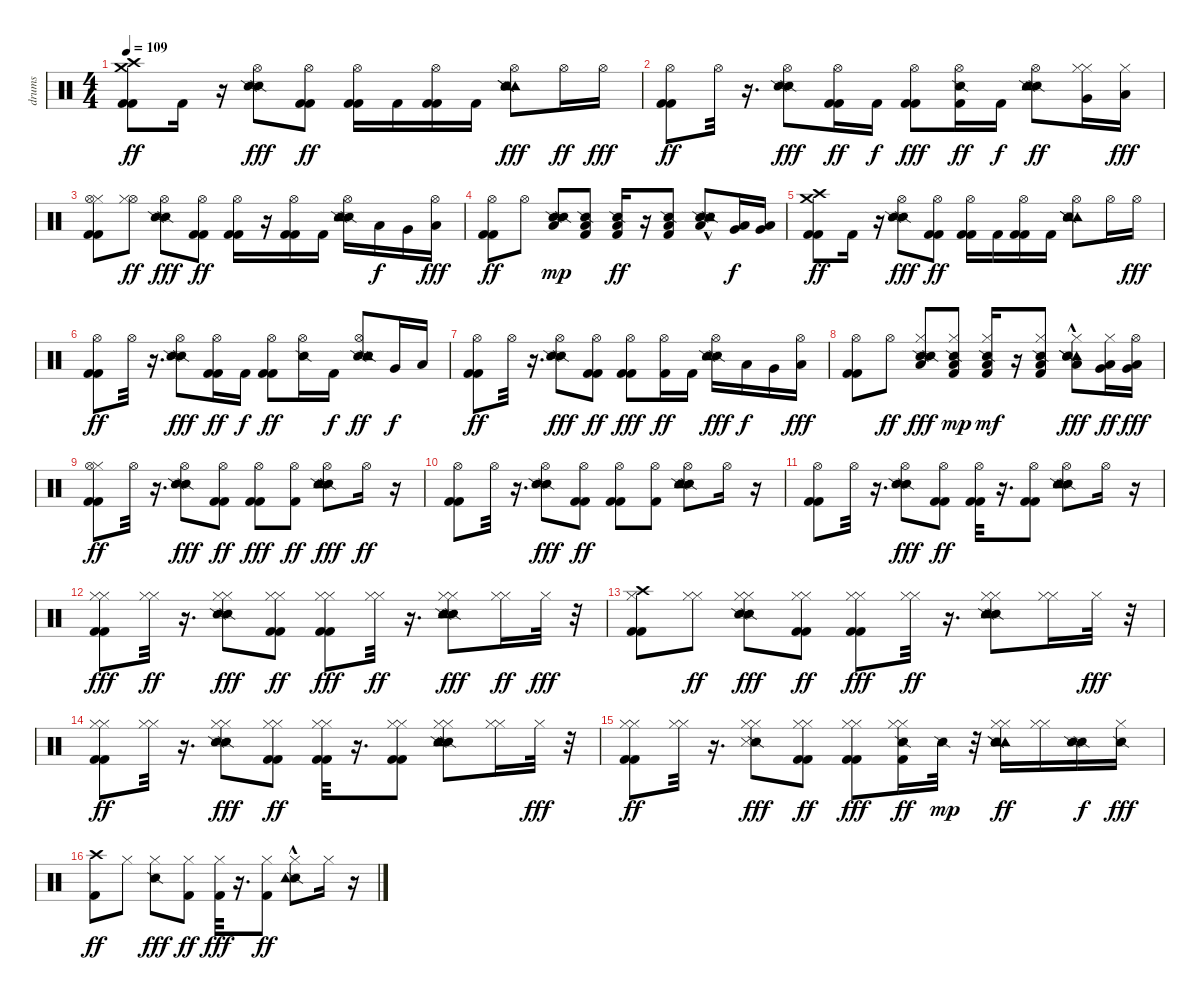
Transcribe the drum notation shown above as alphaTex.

\track ("drums" "drums") {instrument percussion}
\staff {score}
\articulation defaults
\ts (4 4)
\tempo 109
\clef neutral
\ks c
("Crash medium (hit)" "Kick (hit) 2" "Crash high (hit)" "Kick (hit) 2").8{dy ff} "Kick (hit) 2".16 r.16 ("Snare (side stick) 2" "Snare (side stick) 2" "Hi-Hat (open)").8{dy fff} ("Hi-Hat (open)" "Kick (hit) 2" "Kick (hit) 2").8{dy ff} ("Hi-Hat (open)" "Kick (hit) 2" "Kick (hit) 2").16 "Kick (hit) 2".16 ("Kick (hit) 2" "Kick (hit) 2" "Hi-Hat (open)").16 "Kick (hit) 2".16 ("Tambourine (hit)" "Tambourine (hit)" "Snare (side stick) 2" "Snare (side stick) 2" "Hi-Hat (open)").8{dy fff} "Hi-Hat (open)".16{dy ff} "Hi-Hat (open)".16{dy fff} |
("Kick (hit) 2" "Hi-Hat (open)" "Kick (hit) 2").8{dy ff} "Hi-Hat (open)".32 r.16{d} ("Hi-Hat (open)" "Snare (side stick) 2" "Snare (side stick) 2").8{dy fff} ("Hi-Hat (open)" "Kick (hit) 2" "Kick (hit) 2").16{dy ff} "Kick (hit) 2".16{dy f} ("Kick (hit) 2" "Kick (hit) 2" "Hi-Hat (open)").8{dy fff} ("Snare (side stick) 2" "Hi-Hat (open)" "Kick (hit) 2").16{dy ff} "Kick (hit) 2".16{dy f} ("Snare (side stick) 2" "Hi-Hat (open)" "Tambourine (hit)" "Tambourine (hit)" "Snare (side stick) 2").8{dy ff} ("Hi-Hat (closed)" "Very Low Tom (hit)" "Hi-Hat (closed)").16 ("Low Floor Tom (hit)" "Hi-Hat (closed)").16{dy fff} |
("Kick (hit) 2" "Kick (hit) 2" "Hi-Hat (closed)" "Hi-Hat (open)").8 ("Hi-Hat (open)" "Hi-Hat (closed)").8{dy ff} ("Snare (side stick) 2" "Hi-Hat (open)" "Snare (side stick) 2").8{dy fff} ("Kick (hit) 2" "Kick (hit) 2" "Hi-Hat (open)").8{dy ff} ("Kick (hit) 2" "Hi-Hat (open)" "Kick (hit) 2").16 r.16 ("Kick (hit) 2" "Kick (hit) 2" "Hi-Hat (open)").16 "Kick (hit) 2".16 ("Hi-Hat (open)" "Snare (side stick) 2" "Tambourine (hit)" "Snare (side stick) 2").16 "Low Tom (hit)".16{dy f} "Very Low Tom (hit)".16 ("Hi-Hat (open)" "Low Floor Tom (hit)").16{dy fff} |
("Hi-Hat (open)" "Kick (hit) 2" "Kick (hit) 2").8{dy ff} "Hi-Hat (open)".8 ("Low Floor Tom (hit)" "Snare (side stick) 2" "Snare (side stick) 2").8{dy mp} ("Low Floor Tom (hit)" "Kick (hit) 2" "Snare (side stick) 2").8 ("Low Floor Tom (hit)" "Snare (side stick) 2" "Kick (hit) 2").16{dy ff} r.16 ("Snare (side stick) 2" "Kick (hit) 2" "Low Floor Tom (hit)").8 ("Snare (side stick) 2" "Low Floor Tom (hit)" "Snare (side stick) 2" "Tambourine (hit)"{hac}).8 ("Low Tom (hit)" "Very Low Tom (hit)").16{dy f} ("Low Floor Tom (hit)" "Very Low Tom (hit)").16 |
("Crash high (hit)" "Crash medium (hit)" "Kick (hit) 2" "Kick (hit) 2").8{dy ff} "Kick (hit) 2".16 r.16 ("Snare (side stick) 2" "Hi-Hat (open)" "Snare (side stick) 2").8{dy fff} ("Kick (hit) 2" "Hi-Hat (open)" "Kick (hit) 2").8{dy ff} ("Hi-Hat (open)" "Kick (hit) 2" "Kick (hit) 2").16 "Kick (hit) 2".16 ("Kick (hit) 2" "Kick (hit) 2" "Hi-Hat (open)").16 "Kick (hit) 2".16 ("Hi-Hat (open)" "Tambourine (hit)" "Snare (side stick) 2" "Tambourine (hit)" "Snare (side stick) 2").8 "Hi-Hat (open)".16 "Hi-Hat (open)".16{dy fff} |
("Kick (hit) 2" "Hi-Hat (open)" "Kick (hit) 2").8{dy ff} "Hi-Hat (open)".32 r.16{d} ("Snare (side stick) 2" "Hi-Hat (open)" "Snare (side stick) 2").8{dy fff} ("Kick (hit) 2" "Hi-Hat (open)" "Kick (hit) 2").16{dy ff} "Kick (hit) 2".16{dy f} ("Kick (hit) 2" "Hi-Hat (open)" "Kick (hit) 2").8{dy ff} ("Hi-Hat (open)" "Snare (side stick) 2").16 "Kick (hit) 2".16{dy f} ("Snare (side stick) 2" "Hi-Hat (open)" "Snare (side stick) 2" "Tambourine (hit)" "Tambourine (hit)").8{dy ff} "Very Low Tom (hit)".16{dy f} "Low Floor Tom (hit)".16 |
("Kick (hit) 2" "Hi-Hat (open)" "Kick (hit) 2").8{dy ff} "Hi-Hat (open)".32 r.16{d} ("Snare (side stick) 2" "Snare (side stick) 2" "Hi-Hat (open)").8{dy fff} ("Kick (hit) 2" "Hi-Hat (open)" "Kick (hit) 2").8{dy ff} ("Kick (hit) 2" "Kick (hit) 2" "Hi-Hat (open)").8{dy fff} ("Hi-Hat (open)" "Kick (hit) 2").16{dy ff} "Kick (hit) 2".16 ("Snare (side stick) 2" "Tambourine (hit)" "Hi-Hat (open)" "Snare (side stick) 2").16{dy fff} "Low Tom (hit)".16{dy f} "Very Low Tom (hit)".16 ("Hi-Hat (open)" "Low Floor Tom (hit)").16{dy fff} |
("Kick (hit) 2" "Kick (hit) 2" "Hi-Hat (open)").8 "Hi-Hat (open)".8{dy ff} ("Snare (side stick) 2" "Snare (side stick) 2" "Low Floor Tom (hit)" "Hi-Hat (closed)").8{dy fff} ("Kick (hit) 2" "Hi-Hat (closed)" "Snare (side stick) 2" "Low Floor Tom (hit)").8{dy mp} ("Low Floor Tom (hit)" "Hi-Hat (closed)" "Kick (hit) 2" "Snare (side stick) 2").16{dy mf} r.16 ("Hi-Hat (closed)" "Kick (hit) 2" "Low Floor Tom (hit)" "Snare (side stick) 2").8 ("Tambourine (hit)"{hac} "Snare (side stick) 2" "Low Floor Tom (hit)" "Snare (side stick) 2" "Hi-Hat (closed)").8{dy fff} ("Hi-Hat (closed)" "Very Low Tom (hit)" "Low Tom (hit)").16{dy ff} ("Low Floor Tom (hit)" "Very Low Tom (hit)" "Hi-Hat (open)").16{dy fff} |
("Hi-Hat (closed)" "Kick (hit) 2" "Hi-Hat (open)" "Kick (hit) 2").8{dy ff} "Hi-Hat (open)".32 r.16{d} ("Snare (side stick) 2" "Snare (side stick) 2" "Hi-Hat (open)").8{dy fff} ("Hi-Hat (open)" "Kick (hit) 2" "Kick (hit) 2").8{dy ff} ("Kick (hit) 2" "Kick (hit) 2" "Hi-Hat (open)").8{dy fff} ("Kick (hit) 2" "Hi-Hat (open)").8{dy ff} ("Snare (side stick) 2" "Tambourine (hit)" "Tambourine (hit)" "Snare (side stick) 2" "Hi-Hat (open)").8{dy fff} "Hi-Hat (open)".16{dy ff} r.16 |
("Kick (hit) 2" "Hi-Hat (open)" "Kick (hit) 2").8 "Hi-Hat (open)".32 r.16{d} ("Snare (side stick) 2" "Hi-Hat (open)" "Snare (side stick) 2").8{dy fff} ("Kick (hit) 2" "Hi-Hat (open)" "Kick (hit) 2").8{dy ff} ("Kick (hit) 2" "Hi-Hat (open)" "Kick (hit) 2").8 ("Kick (hit) 2" "Hi-Hat (open)").8 ("Snare (side stick) 2" "Snare (side stick) 2" "Hi-Hat (open)" "Tambourine (hit)" "Tambourine (hit)").8 "Hi-Hat (open)".16 r.16 |
("Hi-Hat (open)" "Kick (hit) 2" "Kick (hit) 2").8 "Hi-Hat (open)".32 r.16{d} ("Snare (side stick) 2" "Snare (side stick) 2" "Hi-Hat (open)").8{dy fff} ("Hi-Hat (open)" "Kick (hit) 2" "Kick (hit) 2").8{dy ff} ("Kick (hit) 2" "Hi-Hat (open)" "Kick (hit) 2").32 r.16{d} ("Hi-Hat (open)" "Kick (hit) 2" "Kick (hit) 2").8 ("Hi-Hat (open)" "Snare (side stick) 2" "Tambourine (hit)" "Snare (side stick) 2" "Tambourine (hit)").8 "Hi-Hat (open)".16 r.16 |
("Kick (hit) 2" "Hi-Hat (closed)" "Kick (hit) 2" "Hi-Hat (closed)").8{dy fff} ("Hi-Hat (closed)" "Hi-Hat (closed)").32{dy ff} r.16{d} ("Snare (side stick) 2" "Hi-Hat (closed)" "Snare (side stick) 2" "Hi-Hat (closed)").8{dy fff} ("Kick (hit) 2" "Kick (hit) 2" "Hi-Hat (closed)" "Hi-Hat (closed)").8{dy ff} ("Kick (hit) 2" "Hi-Hat (closed)" "Kick (hit) 2" "Hi-Hat (closed)").8{dy fff} ("Hi-Hat (closed)" "Hi-Hat (closed)").32{dy ff} r.16{d} ("Hi-Hat (closed)" "Snare (side stick) 2" "Tambourine (hit)" "Snare (side stick) 2" "Tambourine (hit)" "Hi-Hat (closed)").8{dy fff} ("Hi-Hat (closed)" "Hi-Hat (closed)").16{dy ff} "Hi-Hat (closed)".32{dy fff} r.32 |
("Kick (hit) 2" "Crash high (hit)" "Kick (hit) 2" "Hi-Hat (closed)").8 ("Hi-Hat (closed)" "Hi-Hat (closed)").8{dy ff} ("Snare (side stick) 2" "Snare (side stick) 2" "Hi-Hat (closed)" "Hi-Hat (closed)").8{dy fff} ("Hi-Hat (closed)" "Kick (hit) 2" "Kick (hit) 2" "Hi-Hat (closed)").8{dy ff} ("Kick (hit) 2" "Hi-Hat (closed)" "Kick (hit) 2" "Hi-Hat (closed)").8{dy fff} ("Hi-Hat (closed)" "Hi-Hat (closed)").32{dy ff} r.16{d} ("Hi-Hat (closed)" "Snare (side stick) 2" "Snare (side stick) 2" "Tambourine (hit)" "Hi-Hat (closed)" "Tambourine (hit)").8 ("Hi-Hat (closed)" "Hi-Hat (closed)").16 "Hi-Hat (closed)".32{dy fff} r.32 |
("Hi-Hat (closed)" "Hi-Hat (closed)" "Kick (hit) 2" "Kick (hit) 2").8{dy ff} ("Hi-Hat (closed)" "Hi-Hat (closed)").32 r.16{d} ("Hi-Hat (closed)" "Snare (side stick) 2" "Snare (side stick) 2" "Hi-Hat (closed)").8{dy fff} ("Hi-Hat (closed)" "Kick (hit) 2" "Hi-Hat (closed)" "Kick (hit) 2").8{dy ff} ("Hi-Hat (closed)" "Hi-Hat (closed)" "Kick (hit) 2" "Kick (hit) 2").32 r.16{d} ("Hi-Hat (closed)" "Kick (hit) 2" "Hi-Hat (closed)" "Kick (hit) 2").8 ("Snare (side stick) 2" "Hi-Hat (closed)" "Tambourine (hit)" "Hi-Hat (closed)" "Snare (side stick) 2" "Tambourine (hit)").8 ("Hi-Hat (closed)" "Hi-Hat (closed)").16 "Hi-Hat (closed)".32{dy fff} r.32 |
("Hi-Hat (closed)" "Kick (hit) 2" "Hi-Hat (closed)" "Kick (hit) 2").8{dy ff} ("Hi-Hat (closed)" "Hi-Hat (closed)").32 r.16{d} ("Snare (side stick) 2" "Hi-Hat (closed)" "Hi-Hat (closed)" "Snare (side stick) 3").8{dy fff} ("Kick (hit) 2" "Hi-Hat (closed)" "Hi-Hat (closed)" "Kick (hit) 2").8{dy ff} ("Hi-Hat (closed)" "Kick (hit) 2" "Kick (hit) 2" "Hi-Hat (closed)").8{dy fff} ("Snare (side stick) 2" "Kick (hit) 2" "Hi-Hat (closed)" "Hi-Hat (closed)").16{dy ff} "Snare (side stick) 2".32{dy mp} r.32 ("Tambourine (hit)" "Hi-Hat (closed)" "Hi-Hat (closed)" "Snare (side stick) 2" "Snare (side stick) 2" "Tambourine (hit)").16{dy ff} ("Hi-Hat (closed)" "Hi-Hat (closed)").16 ("Snare (side stick) 2" "Snare (side stick) 2").16{dy f} ("Snare (side stick) 2" "Hi-Hat (closed)").16{dy fff} |
("Crash high (hit)" "Kick (hit) 2").8{dy ff} "Hi-Hat (closed)".8 ("Snare (side stick) 2" "Hi-Hat (closed)").8{dy fff} ("Kick (hit) 2" "Hi-Hat (closed)").8{dy ff} ("Kick (hit) 2" "Hi-Hat (closed)").32{dy fff} r.16{d} ("Kick (hit) 2" "Hi-Hat (closed)").8{dy ff} ("Hi-Hat (closed)" "Snare (side stick) 2" "Tambourine (hit)"{hac}).8 "Hi-Hat (closed)".16 r.16
